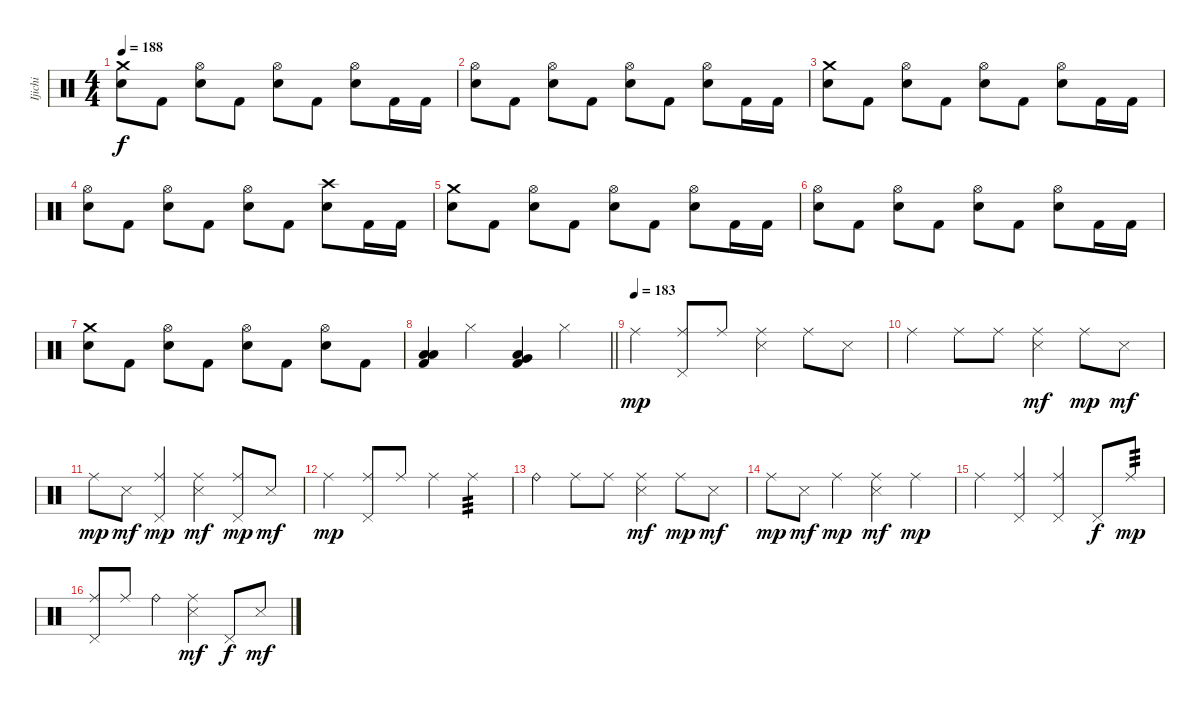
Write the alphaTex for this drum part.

\track ("Ijichi" "Ijichi") {instrument percussion}
\staff {score}
\articulation defaults
\ts (4 4)
\tempo 188
\clef neutral
\ks c
("Crash medium (hit)" "Electric Snare (hit)").8{dy f} "Kick (hit) 2".8 ("Hi-Hat (open)" "Electric Snare (hit)").8 "Kick (hit) 2".8 ("Hi-Hat (open)" "Electric Snare (hit)").8 "Kick (hit) 2".8 ("Hi-Hat (open)" "Electric Snare (hit)").8 "Kick (hit) 2".16 "Kick (hit) 2".16 |
("Hi-Hat (open)" "Electric Snare (hit)").8 "Kick (hit) 2".8 ("Hi-Hat (open)" "Electric Snare (hit)").8 "Kick (hit) 2".8 ("Hi-Hat (open)" "Electric Snare (hit)").8 "Kick (hit) 2".8 ("Hi-Hat (open)" "Electric Snare (hit)").8 "Kick (hit) 2".16 "Kick (hit) 2".16 |
("Crash medium (hit)" "Electric Snare (hit)").8 "Kick (hit) 2".8 ("Hi-Hat (open)" "Electric Snare (hit)").8 "Kick (hit) 2".8 ("Hi-Hat (open)" "Electric Snare (hit)").8 "Kick (hit) 2".8 ("Hi-Hat (open)" "Electric Snare (hit)").8 "Kick (hit) 2".16 "Kick (hit) 2".16 |
("Hi-Hat (open)" "Electric Snare (hit)").8 "Kick (hit) 2".8 ("Hi-Hat (open)" "Electric Snare (hit)").8 "Kick (hit) 2".8 ("Hi-Hat (open)" "Electric Snare (hit)").8 "Kick (hit) 2".8 ("Crash high (hit)" "Electric Snare (hit)").8 "Kick (hit) 2".16 "Kick (hit) 2".16 |
("Crash medium (hit)" "Electric Snare (hit)").8 "Kick (hit) 2".8 ("Hi-Hat (open)" "Electric Snare (hit)").8 "Kick (hit) 2".8 ("Hi-Hat (open)" "Electric Snare (hit)").8 "Kick (hit) 2".8 ("Hi-Hat (open)" "Electric Snare (hit)").8 "Kick (hit) 2".16 "Kick (hit) 2".16 |
("Hi-Hat (open)" "Electric Snare (hit)").8 "Kick (hit) 2".8 ("Hi-Hat (open)" "Electric Snare (hit)").8 "Kick (hit) 2".8 ("Hi-Hat (open)" "Electric Snare (hit)").8 "Kick (hit) 2".8 ("Hi-Hat (open)" "Electric Snare (hit)").8 "Kick (hit) 2".16 "Kick (hit) 2".16 |
("Crash medium (hit)" "Electric Snare (hit)").8 "Kick (hit) 2".8 ("Hi-Hat (open)" "Electric Snare (hit)").8 "Kick (hit) 2".8 ("Hi-Hat (open)" "Electric Snare (hit)").8 "Kick (hit) 2".8 ("Hi-Hat (open)" "Electric Snare (hit)").8 "Kick (hit) 2".8 |
\barLineRight lightlight
("Low Tom (hit)" "Low Floor Tom (hit)" "Kick (hit) 2").4 "Hi-Hat (closed)".4 ("Very Low Tom (hit)" "Low Floor Tom (hit)" "Kick (hit) 2").4 "Hi-Hat (closed)".4 |
\tempo (183)
"Ride (middle)".4{dy mp} ("Ride (middle)" "Pedal Hi-Hat (hit)").8 "Ride (middle)".8 ("Ride (middle)" "Snare (side stick) 3").4 "Ride (middle)".8 "Snare (side stick) 3".8 |
"Ride (middle)".4 "Ride (middle)".8 "Ride (middle)".8 ("Ride (middle)" "Snare (side stick) 3").4{dy mf} "Ride (middle)".8{dy mp} "Snare (side stick) 3".8{dy mf} |
"Ride (middle)".8{dy mp} "Snare (side stick) 3".8{dy mf} ("Ride (middle)" "Pedal Hi-Hat (hit)").4{dy mp} ("Ride (middle)" "Snare (side stick) 3").4{dy mf} ("Ride (middle)" "Pedal Hi-Hat (hit)").8{dy mp} "Snare (side stick) 3".8{dy mf} |
"Ride (middle)".4{dy mp} ("Ride (middle)" "Pedal Hi-Hat (hit)").8 "Ride (middle)".8 "Ride (middle)".4 "Ride (middle)".4{tp 3} |
"Ride (bell)".4 "Ride (middle)".8 "Ride (middle)".8 ("Ride (middle)" "Snare (side stick) 3").4{dy mf} "Ride (middle)".8{dy mp} "Snare (side stick) 3".8{dy mf} |
"Ride (middle)".8{dy mp} "Snare (side stick) 3".8{dy mf} "Ride (middle)".4{dy mp} ("Ride (middle)" "Snare (side stick) 3").4{dy mf} "Ride (middle)".4{dy mp} |
"Ride (middle)".4 ("Ride (middle)" "Pedal Hi-Hat (hit)").4 ("Ride (middle)" "Pedal Hi-Hat (hit)").4 "Pedal Hi-Hat (hit)".8{dy f} "Ride (middle)".8{tp 3 dy mp} |
("Ride (middle)" "Pedal Hi-Hat (hit)").8 "Ride (middle)".8 "Ride (bell)".4 ("Ride (middle)" "Snare (side stick) 3").4{dy mf} "Pedal Hi-Hat (hit)".8{dy f} "Snare (side stick) 3".8{dy mf}
